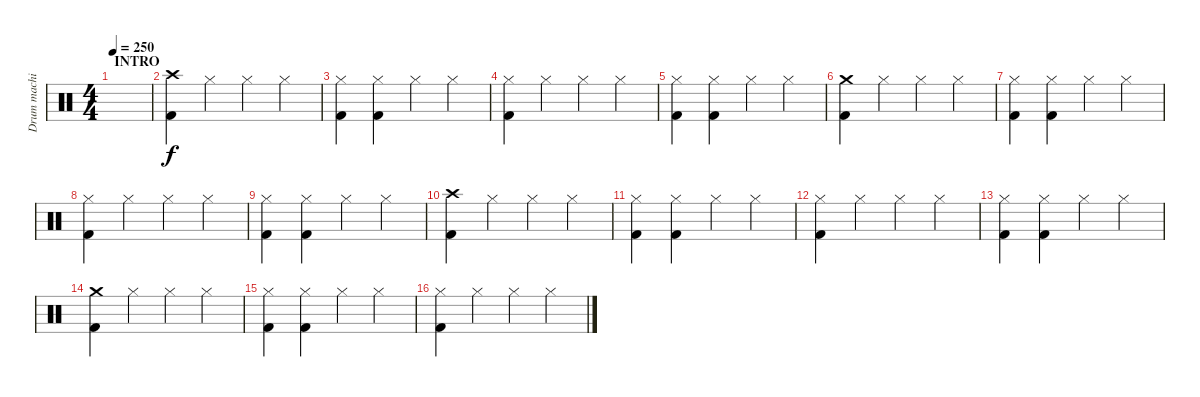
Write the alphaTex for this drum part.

\track ("Drum machine" "Drum machi") {instrument percussion}
\staff {score}
\articulation defaults
\ts (4 4)
\section ("" "INTRO")
\tempo 250
\clef neutral
\ks c
|
("Crash high (hit)" "Kick (hit) 2").4 "Hi-Hat (closed)".4 "Hi-Hat (closed)".4 "Hi-Hat (closed)".4 |
("Hi-Hat (closed)" "Kick (hit) 2").4 ("Hi-Hat (closed)" "Kick (hit) 2").4 "Hi-Hat (closed)".4 "Hi-Hat (closed)".4 |
("Hi-Hat (closed)" "Kick (hit) 2").4 "Hi-Hat (closed)".4 "Hi-Hat (closed)".4 "Hi-Hat (closed)".4 |
("Hi-Hat (closed)" "Kick (hit) 2").4 ("Hi-Hat (closed)" "Kick (hit) 2").4 "Hi-Hat (closed)".4 "Hi-Hat (closed)".4 |
("Crash medium (hit)" "Kick (hit) 2").4 "Hi-Hat (closed)".4 "Hi-Hat (closed)".4 "Hi-Hat (closed)".4 |
("Hi-Hat (closed)" "Kick (hit) 2").4 ("Hi-Hat (closed)" "Kick (hit) 2").4 "Hi-Hat (closed)".4 "Hi-Hat (closed)".4 |
("Hi-Hat (closed)" "Kick (hit) 2").4 "Hi-Hat (closed)".4 "Hi-Hat (closed)".4 "Hi-Hat (closed)".4 |
("Hi-Hat (closed)" "Kick (hit) 2").4 ("Hi-Hat (closed)" "Kick (hit) 2").4 "Hi-Hat (closed)".4 "Hi-Hat (closed)".4 |
("Crash high (hit)" "Kick (hit) 2").4 "Hi-Hat (closed)".4 "Hi-Hat (closed)".4 "Hi-Hat (closed)".4 |
("Hi-Hat (closed)" "Kick (hit) 2").4 ("Hi-Hat (closed)" "Kick (hit) 2").4 "Hi-Hat (closed)".4 "Hi-Hat (closed)".4 |
("Hi-Hat (closed)" "Kick (hit) 2").4 "Hi-Hat (closed)".4 "Hi-Hat (closed)".4 "Hi-Hat (closed)".4 |
("Hi-Hat (closed)" "Kick (hit) 2").4 ("Hi-Hat (closed)" "Kick (hit) 2").4 "Hi-Hat (closed)".4 "Hi-Hat (closed)".4 |
("Crash medium (hit)" "Kick (hit) 2").4 "Hi-Hat (closed)".4 "Hi-Hat (closed)".4 "Hi-Hat (closed)".4 |
("Hi-Hat (closed)" "Kick (hit) 2").4 ("Hi-Hat (closed)" "Kick (hit) 2").4 "Hi-Hat (closed)".4 "Hi-Hat (closed)".4 |
("Hi-Hat (closed)" "Kick (hit) 2").4 "Hi-Hat (closed)".4 "Hi-Hat (closed)".4 "Hi-Hat (closed)".4
